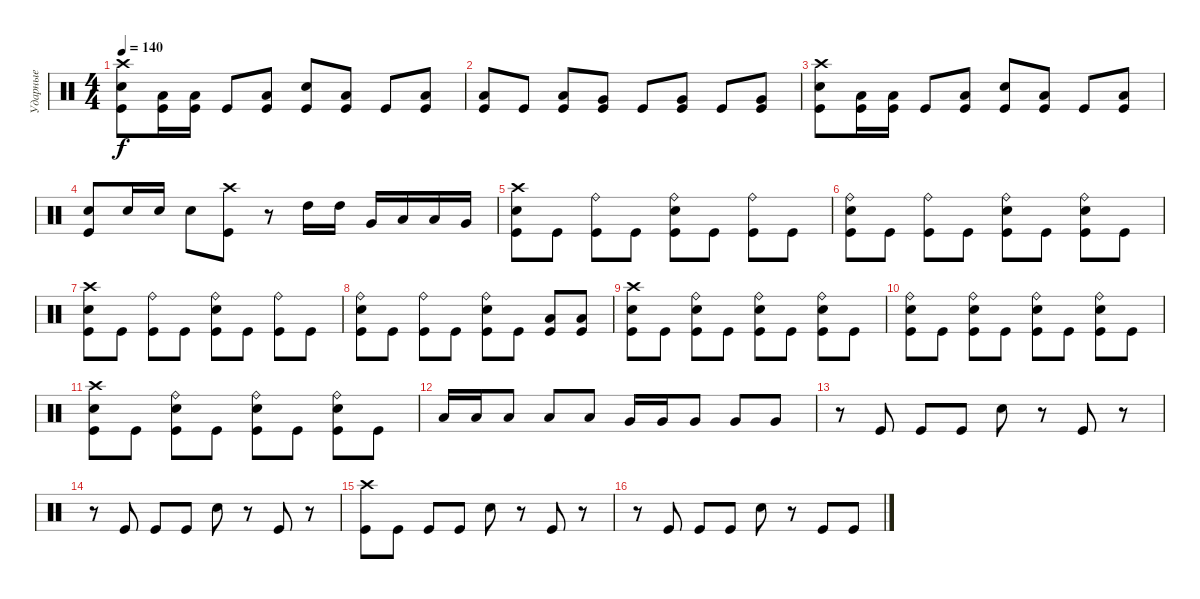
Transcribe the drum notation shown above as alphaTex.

\track ("Ударные" "Ударные") {instrument percussion}
\staff {score}
\articulation defaults
\ts (4 4)
\tempo 140
\clef neutral
\ks c
("Crash high (hit)" "Electric Snare (hit)" "Kick (hit)").8{dy f} ("Low Tom (hit)" "Kick (hit)").16 ("Low Tom (hit)" "Kick (hit)").16 "Kick (hit)".8 ("Low Tom (hit)" "Kick (hit)").8 ("Electric Snare (hit)" "Kick (hit)").8 ("Low Tom (hit)" "Kick (hit)").8 "Kick (hit)".8 ("Low Tom (hit)" "Kick (hit)").8 |
("Low Tom (hit)" "Kick (hit)").8 "Kick (hit)".8 ("Low Tom (hit)" "Kick (hit)").8 ("Very Low Tom (hit)" "Kick (hit)").8 "Kick (hit)".8 ("Very Low Tom (hit)" "Kick (hit)").8 "Kick (hit)".8 ("Very Low Tom (hit)" "Kick (hit)").8 |
("Crash high (hit)" "Electric Snare (hit)" "Kick (hit)").8 ("Low Tom (hit)" "Kick (hit)").16 ("Low Tom (hit)" "Kick (hit)").16 "Kick (hit)".8 ("Low Tom (hit)" "Kick (hit)").8 ("Electric Snare (hit)" "Kick (hit)").8 ("Low Tom (hit)" "Kick (hit)").8 "Kick (hit)".8 ("Low Tom (hit)" "Kick (hit)").8 |
("Electric Snare (hit)" "Kick (hit)").8 "Electric Snare (hit)".16 "Electric Snare (hit)".16 "Electric Snare (hit)".8 ("Crash high (hit)" "Kick (hit)").8 r.8 "High Tom (hit)".16 "High Tom (hit)".16 "Very Low Tom (hit)".16 "Low Tom (hit)".16 "Low Tom (hit)".16 "Very Low Tom (hit)".16 |
("Crash high (hit)" "Electric Snare (hit)" "Kick (hit)").8 "Kick (hit)".8 ("Ride (bell)" "Kick (hit)").8 "Kick (hit)".8 ("Ride (bell)" "Electric Snare (hit)" "Kick (hit)").8 "Kick (hit)".8 ("Ride (bell)" "Kick (hit)").8 "Kick (hit)".8 |
("Ride (bell)" "Electric Snare (hit)" "Kick (hit)").8 "Kick (hit)".8 ("Ride (bell)" "Kick (hit)").8 "Kick (hit)".8 ("Ride (bell)" "Electric Snare (hit)" "Kick (hit)").8 "Kick (hit)".8 ("Ride (bell)" "Electric Snare (hit)" "Kick (hit)").8 "Kick (hit)".8 |
("Crash high (hit)" "Electric Snare (hit)" "Kick (hit)").8 "Kick (hit)".8 ("Ride (bell)" "Kick (hit)").8 "Kick (hit)".8 ("Ride (bell)" "Electric Snare (hit)" "Kick (hit)").8 "Kick (hit)".8 ("Ride (bell)" "Kick (hit)").8 "Kick (hit)".8 |
("Ride (bell)" "Electric Snare (hit)" "Kick (hit)").8 "Kick (hit)".8 ("Ride (bell)" "Kick (hit)").8 "Kick (hit)".8 ("Ride (bell)" "Electric Snare (hit)" "Kick (hit)").8 "Kick (hit)".8 ("Low Tom (hit)" "Kick (hit)").8 ("Low Tom (hit)" "Kick (hit)").8 |
("Crash high (hit)" "Electric Snare (hit)" "Kick (hit)").8 "Kick (hit)".8 ("Ride (bell)" "Electric Snare (hit)" "Kick (hit)").8 "Kick (hit)".8 ("Ride (bell)" "Electric Snare (hit)" "Kick (hit)").8 "Kick (hit)".8 ("Ride (bell)" "Electric Snare (hit)" "Kick (hit)").8 "Kick (hit)".8 |
("Ride (bell)" "Electric Snare (hit)" "Kick (hit)").8 "Kick (hit)".8 ("Ride (bell)" "Electric Snare (hit)" "Kick (hit)").8 "Kick (hit)".8 ("Ride (bell)" "Electric Snare (hit)" "Kick (hit)").8 "Kick (hit)".8 ("Ride (bell)" "Electric Snare (hit)" "Kick (hit)").8 "Kick (hit)".8 |
("Crash high (hit)" "Electric Snare (hit)" "Kick (hit)").8 "Kick (hit)".8 ("Ride (bell)" "Electric Snare (hit)" "Kick (hit)").8 "Kick (hit)".8 ("Ride (bell)" "Electric Snare (hit)" "Kick (hit)").8 "Kick (hit)".8 ("Ride (bell)" "Electric Snare (hit)" "Kick (hit)").8 "Kick (hit)".8 |
"Low Tom (hit)".16 "Low Tom (hit)".16 "Low Tom (hit)".8 "Low Tom (hit)".8 "Low Tom (hit)".8 "Very Low Tom (hit)".16 "Very Low Tom (hit)".16 "Very Low Tom (hit)".8 "Very Low Tom (hit)".8 "Very Low Tom (hit)".8 |
r.8 "Kick (hit)".8 "Kick (hit)".8 "Kick (hit)".8 "Electric Snare (hit)".8 r.8 "Kick (hit)".8 r.8 |
r.8 "Kick (hit)".8 "Kick (hit)".8 "Kick (hit)".8 "Electric Snare (hit)".8 r.8 "Kick (hit)".8 r.8 |
("Crash high (hit)" "Kick (hit)").8 "Kick (hit)".8 "Kick (hit)".8 "Kick (hit)".8 "Electric Snare (hit)".8 r.8 "Kick (hit)".8 r.8 |
r.8 "Kick (hit)".8 "Kick (hit)".8 "Kick (hit)".8 "Electric Snare (hit)".8 r.8 "Kick (hit)".8 "Kick (hit)".8
